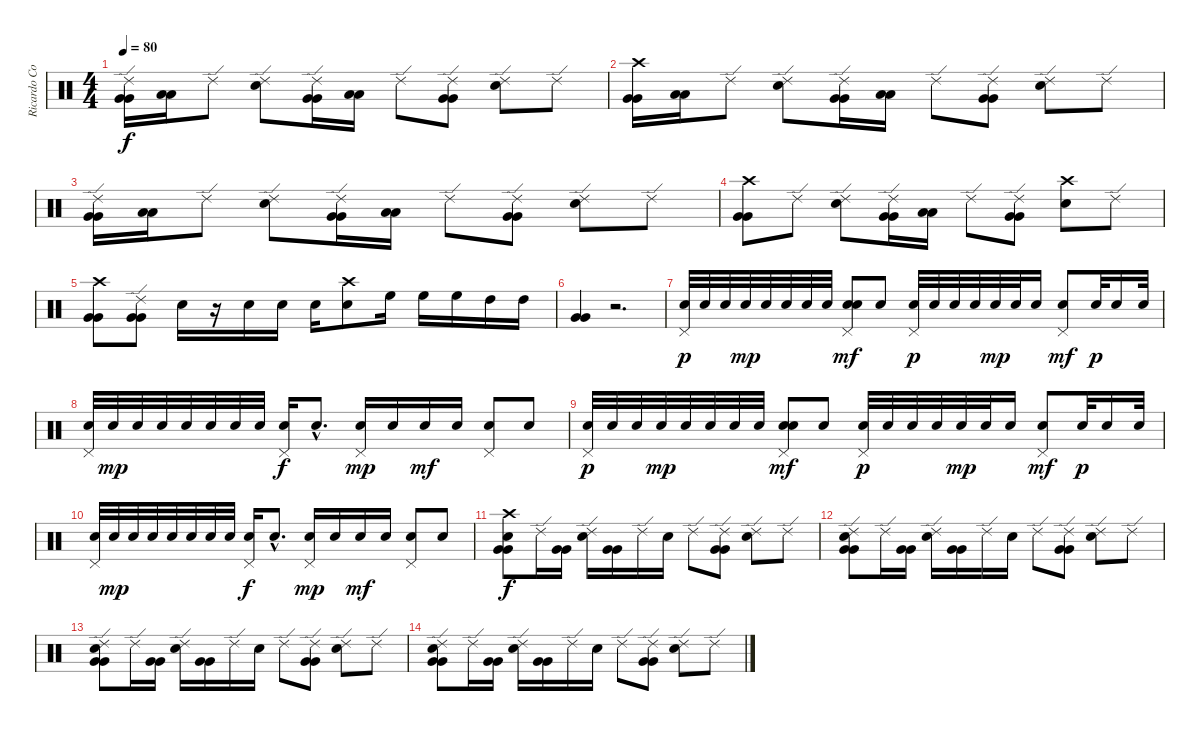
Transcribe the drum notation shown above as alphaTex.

\track ("Ricardo Confessori" "Ricardo Co") {instrument percussion}
\staff {score}
\articulation defaults
\ts (4 4)
\tempo 80
\clef neutral
\ks c
("Ride (edge) 2" "Very Low Tom (hit)" "Very Low Tom (hit)").16{dy f} ("Low Floor Tom (hit)" "Low Floor Tom (hit)").16 "Ride (edge) 2".8 ("Ride (edge) 2" "Electric Snare (hit)").8 ("Ride (edge) 2" "Very Low Tom (hit)" "Very Low Tom (hit)").16 ("Low Floor Tom (hit)" "Low Floor Tom (hit)").16 "Ride (edge) 2".8 ("Ride (edge) 2" "Very Low Tom (hit)" "Very Low Tom (hit)").8 ("Ride (edge) 2" "Electric Snare (hit)").8 "Ride (edge) 2".8 |
("Crash high (hit)" "Very Low Tom (hit)" "Very Low Tom (hit)").16 ("Low Floor Tom (hit)" "Low Floor Tom (hit)").16 "Ride (edge) 2".8 ("Ride (edge) 2" "Electric Snare (hit)").8 ("Ride (edge) 2" "Very Low Tom (hit)" "Very Low Tom (hit)").16 ("Low Floor Tom (hit)" "Low Floor Tom (hit)").16 "Ride (edge) 2".8 ("Ride (edge) 2" "Very Low Tom (hit)" "Very Low Tom (hit)").8 ("Ride (edge) 2" "Electric Snare (hit)").8 "Ride (edge) 2".8 |
("Ride (edge) 2" "Very Low Tom (hit)" "Very Low Tom (hit)").16 ("Low Floor Tom (hit)" "Low Floor Tom (hit)").16 "Ride (edge) 2".8 ("Ride (edge) 2" "Electric Snare (hit)").8 ("Ride (edge) 2" "Very Low Tom (hit)" "Very Low Tom (hit)").16 ("Low Floor Tom (hit)" "Low Floor Tom (hit)").16 "Ride (edge) 2".8 ("Ride (edge) 2" "Very Low Tom (hit)" "Very Low Tom (hit)").8 ("Ride (edge) 2" "Electric Snare (hit)").8 "Ride (edge) 2".8 |
("Crash high (hit)" "Very Low Tom (hit)" "Very Low Tom (hit)").8 "Ride (edge) 2".8 ("Ride (edge) 2" "Electric Snare (hit)").8 ("Ride (edge) 2" "Very Low Tom (hit)" "Very Low Tom (hit)").16 ("Low Floor Tom (hit)" "Low Floor Tom (hit)").16 "Ride (edge) 2".8 ("Ride (edge) 2" "Very Low Tom (hit)" "Very Low Tom (hit)").8 ("Crash high (hit)" "Electric Snare (hit)").8 "Ride (edge) 2".8 |
("Crash high (hit)" "Very Low Tom (hit)" "Very Low Tom (hit)").8 ("Ride (edge) 2" "Very Low Tom (hit)" "Very Low Tom (hit)").8 "Electric Snare (hit)".16 r.16 "Electric Snare (hit)".16 "Electric Snare (hit)".16 "Electric Snare (hit)".16 ("Crash high (hit)" "Electric Snare (hit)").8 "High Floor Tom (hit)".16 "High Floor Tom (hit)".16 "High Floor Tom (hit)".16 "High Tom (hit)".16 "High Tom (hit)".16 |
("Very Low Tom (hit)" "Very Low Tom (hit)").4 r.2{d} |
("Pedal Hi-Hat (hit)" "Electric Snare (hit)").32{dy p} "Electric Snare (hit)".32 "Electric Snare (hit)".32 "Electric Snare (hit)".32{dy mp} "Electric Snare (hit)".32 "Electric Snare (hit)".32 "Electric Snare (hit)".32 "Electric Snare (hit)".32 ("Pedal Hi-Hat (hit)" "Electric Snare (hit)" "Electric Snare (hit)").8{bd 120 dy mf} "Electric Snare (hit)".8 ("Pedal Hi-Hat (hit)" "Electric Snare (hit)").32{dy p} "Electric Snare (hit)".32 "Electric Snare (hit)".32 "Electric Snare (hit)".32 "Electric Snare (hit)".32{dy mp} "Electric Snare (hit)".32 "Electric Snare (hit)".16 ("Pedal Hi-Hat (hit)" "Electric Snare (hit)").8{dy mf} "Electric Snare (hit)".32{dy p} "Electric Snare (hit)".16 "Electric Snare (hit)".32 |
("Pedal Hi-Hat (hit)" "Electric Snare (hit)").32 "Electric Snare (hit)".32{dy mp} "Electric Snare (hit)".32 "Electric Snare (hit)".32 "Electric Snare (hit)".32 "Electric Snare (hit)".32 "Electric Snare (hit)".32 "Electric Snare (hit)".32 ("Pedal Hi-Hat (hit)" "Electric Snare (hit)").16{dy f} "Electric Snare (hit)"{hac}.8{d} ("Pedal Hi-Hat (hit)" "Electric Snare (hit)").16{dy mp} "Electric Snare (hit)".16 "Electric Snare (hit)".16{dy mf} "Electric Snare (hit)".16 ("Pedal Hi-Hat (hit)" "Electric Snare (hit)").8 "Electric Snare (hit)".8 |
("Pedal Hi-Hat (hit)" "Electric Snare (hit)").32{dy p} "Electric Snare (hit)".32 "Electric Snare (hit)".32 "Electric Snare (hit)".32{dy mp} "Electric Snare (hit)".32 "Electric Snare (hit)".32 "Electric Snare (hit)".32 "Electric Snare (hit)".32 ("Pedal Hi-Hat (hit)" "Electric Snare (hit)" "Electric Snare (hit)").8{bd 120 dy mf} "Electric Snare (hit)".8 ("Pedal Hi-Hat (hit)" "Electric Snare (hit)").32{dy p} "Electric Snare (hit)".32 "Electric Snare (hit)".32 "Electric Snare (hit)".32 "Electric Snare (hit)".32{dy mp} "Electric Snare (hit)".32 "Electric Snare (hit)".16 ("Pedal Hi-Hat (hit)" "Electric Snare (hit)").8{dy mf} "Electric Snare (hit)".32{dy p} "Electric Snare (hit)".16 "Electric Snare (hit)".32 |
("Pedal Hi-Hat (hit)" "Electric Snare (hit)").32 "Electric Snare (hit)".32{dy mp} "Electric Snare (hit)".32 "Electric Snare (hit)".32 "Electric Snare (hit)".32 "Electric Snare (hit)".32 "Electric Snare (hit)".32 "Electric Snare (hit)".32 ("Pedal Hi-Hat (hit)" "Electric Snare (hit)").16{dy f} "Electric Snare (hit)"{hac}.8{d} ("Pedal Hi-Hat (hit)" "Electric Snare (hit)").16{dy mp} "Electric Snare (hit)".16 "Electric Snare (hit)".16{dy mf} "Electric Snare (hit)".16 ("Pedal Hi-Hat (hit)" "Electric Snare (hit)").8 "Electric Snare (hit)".8 |
("Crash high (hit)" "Electric Snare (hit)" "Very Low Tom (hit)" "Very Low Tom (hit)").8{dy f} "Ride (edge) 2".16 ("Very Low Tom (hit)" "Very Low Tom (hit)").16 ("Electric Snare (hit)" "Ride (edge) 2").16 ("Very Low Tom (hit)" "Very Low Tom (hit)").16 "Ride (edge) 2".16 "Electric Snare (hit)".16 "Ride (edge) 2".8 ("Ride (edge) 2" "Very Low Tom (hit)" "Very Low Tom (hit)").8 ("Electric Snare (hit)" "Ride (edge) 2").8 "Ride (edge) 2".8 |
("Electric Snare (hit)" "Ride (edge) 2" "Very Low Tom (hit)" "Very Low Tom (hit)").8 "Ride (edge) 2".16 ("Very Low Tom (hit)" "Very Low Tom (hit)").16 ("Electric Snare (hit)" "Ride (edge) 2").16 ("Very Low Tom (hit)" "Very Low Tom (hit)").16 "Ride (edge) 2".16 "Electric Snare (hit)".16 "Ride (edge) 2".8 ("Ride (edge) 2" "Very Low Tom (hit)" "Very Low Tom (hit)").8 ("Electric Snare (hit)" "Ride (edge) 2").8 "Ride (edge) 2".8 |
("Electric Snare (hit)" "Ride (edge) 2" "Very Low Tom (hit)" "Very Low Tom (hit)").8 "Ride (edge) 2".16 ("Very Low Tom (hit)" "Very Low Tom (hit)").16 ("Electric Snare (hit)" "Ride (edge) 2").16 ("Very Low Tom (hit)" "Very Low Tom (hit)").16 "Ride (edge) 2".16 "Electric Snare (hit)".16 "Ride (edge) 2".8 ("Ride (edge) 2" "Very Low Tom (hit)" "Very Low Tom (hit)").8 ("Electric Snare (hit)" "Ride (edge) 2").8 "Ride (edge) 2".8 |
("Electric Snare (hit)" "Ride (edge) 2" "Very Low Tom (hit)" "Very Low Tom (hit)").8 "Ride (edge) 2".16 ("Very Low Tom (hit)" "Very Low Tom (hit)").16 ("Electric Snare (hit)" "Ride (edge) 2").16 ("Very Low Tom (hit)" "Very Low Tom (hit)").16 "Ride (edge) 2".16 "Electric Snare (hit)".16 "Ride (edge) 2".8 ("Ride (edge) 2" "Very Low Tom (hit)" "Very Low Tom (hit)").8 ("Electric Snare (hit)" "Ride (edge) 2").8 "Ride (edge) 2".8
